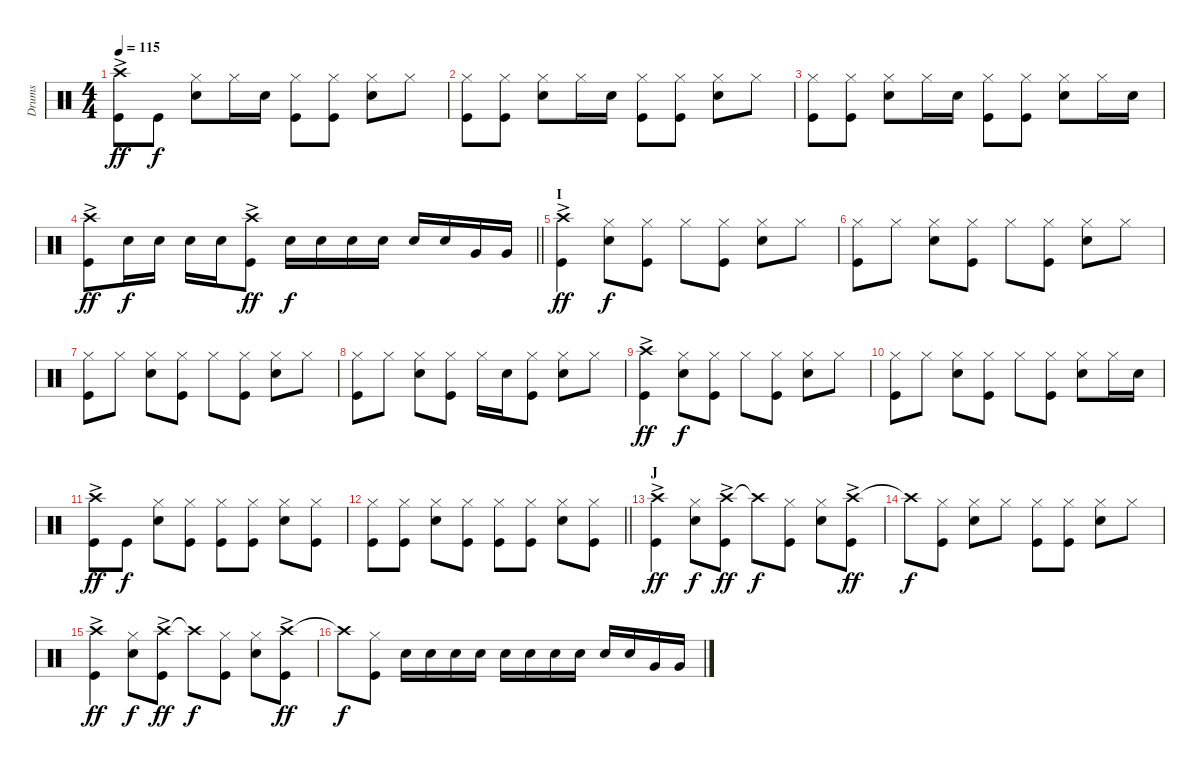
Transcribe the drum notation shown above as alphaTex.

\track ("Drums" "Drums") {instrument percussion}
\staff {score}
\articulation defaults
\ts (4 4)
\tempo 115
\clef neutral
\ks c
("Crash high (hit)"{ac} "Kick (hit)").8{dy ff} "Kick (hit)".8{dy f} ("Hi-Hat (closed)" "Snare (hit) 2").8 "Hi-Hat (closed)".16 "Snare (hit) 2".16 ("Hi-Hat (closed)" "Kick (hit)").8 ("Hi-Hat (closed)" "Kick (hit)").8 ("Hi-Hat (closed)" "Snare (hit) 2").8 "Hi-Hat (closed)".8 |
("Hi-Hat (closed)" "Kick (hit)").8 ("Hi-Hat (closed)" "Kick (hit)").8 ("Hi-Hat (closed)" "Snare (hit) 2").8 "Hi-Hat (closed)".16 "Snare (hit) 2".16 ("Hi-Hat (closed)" "Kick (hit)").8 ("Hi-Hat (closed)" "Kick (hit)").8 ("Hi-Hat (closed)" "Snare (hit) 2").8 "Hi-Hat (closed)".8 |
("Hi-Hat (closed)" "Kick (hit)").8 ("Hi-Hat (closed)" "Kick (hit)").8 ("Hi-Hat (closed)" "Snare (hit) 2").8 "Hi-Hat (closed)".16 "Snare (hit) 2".16 ("Hi-Hat (closed)" "Kick (hit)").8 ("Hi-Hat (closed)" "Kick (hit)").8 ("Hi-Hat (closed)" "Snare (hit) 2").8 "Hi-Hat (closed)".16 "Snare (hit) 2".16 |
\barLineRight lightlight
("Crash high (hit)"{ac} "Kick (hit)").8{dy ff} "Snare (hit) 2".16{dy f} "Snare (hit) 2".16 "Snare (hit) 2".16 "Snare (hit) 2".16 ("Crash high (hit)"{ac} "Kick (hit)").8{dy ff} "Snare (hit) 2".16{dy f} "Snare (hit) 2".16 "Snare (hit) 2".16 "Snare (hit) 2".16 "Snare (hit) 2".16 "Snare (hit) 2".16 "Very Low Tom (hit)".16 "Very Low Tom (hit)".16 |
\section ("" "I")
("Crash high (hit)"{ac} "Kick (hit)").4{dy ff} ("Hi-Hat (closed)" "Snare (hit) 2").8{dy f} ("Hi-Hat (closed)" "Kick (hit)").8 "Hi-Hat (closed)".8 ("Hi-Hat (closed)" "Kick (hit)").8 ("Hi-Hat (closed)" "Snare (hit) 2").8 "Hi-Hat (closed)".8 |
("Hi-Hat (closed)" "Kick (hit)").8 "Hi-Hat (closed)".8 ("Hi-Hat (closed)" "Snare (hit) 2").8 ("Hi-Hat (closed)" "Kick (hit)").8 "Hi-Hat (closed)".8 ("Hi-Hat (closed)" "Kick (hit)").8 ("Hi-Hat (closed)" "Snare (hit) 2").8 "Hi-Hat (closed)".8 |
("Hi-Hat (closed)" "Kick (hit)").8 "Hi-Hat (closed)".8 ("Hi-Hat (closed)" "Snare (hit) 2").8 ("Hi-Hat (closed)" "Kick (hit)").8 "Hi-Hat (closed)".8 ("Hi-Hat (closed)" "Kick (hit)").8 ("Hi-Hat (closed)" "Snare (hit) 2").8 "Hi-Hat (closed)".8 |
("Hi-Hat (closed)" "Kick (hit)").8 "Hi-Hat (closed)".8 ("Hi-Hat (closed)" "Snare (hit) 2").8 ("Hi-Hat (closed)" "Kick (hit)").8 "Hi-Hat (closed)".16 "Snare (hit) 2".16 ("Hi-Hat (closed)" "Kick (hit)").8 ("Hi-Hat (closed)" "Snare (hit) 2").8 "Hi-Hat (closed)".8 |
("Crash high (hit)"{ac} "Kick (hit)").4{dy ff} ("Hi-Hat (closed)" "Snare (hit) 2").8{dy f} ("Hi-Hat (closed)" "Kick (hit)").8 "Hi-Hat (closed)".8 ("Hi-Hat (closed)" "Kick (hit)").8 ("Hi-Hat (closed)" "Snare (hit) 2").8 "Hi-Hat (closed)".8 |
("Hi-Hat (closed)" "Kick (hit)").8 "Hi-Hat (closed)".8 ("Hi-Hat (closed)" "Snare (hit) 2").8 ("Hi-Hat (closed)" "Kick (hit)").8 "Hi-Hat (closed)".8 ("Hi-Hat (closed)" "Kick (hit)").8 ("Hi-Hat (closed)" "Snare (hit) 2").8 "Hi-Hat (closed)".16 "Snare (hit) 2".16 |
("Crash high (hit)"{ac} "Kick (hit)").8{dy ff} "Kick (hit)".8{dy f} ("Hi-Hat (closed)" "Snare (hit) 2").8 ("Hi-Hat (closed)" "Kick (hit)").8 ("Hi-Hat (closed)" "Kick (hit)").8 ("Hi-Hat (closed)" "Kick (hit)").8 ("Hi-Hat (closed)" "Snare (hit) 2").8 ("Hi-Hat (closed)" "Kick (hit)").8 |
\barLineRight lightlight
("Hi-Hat (closed)" "Kick (hit)").8 ("Hi-Hat (closed)" "Kick (hit)").8 ("Hi-Hat (closed)" "Snare (hit) 2").8 ("Hi-Hat (closed)" "Kick (hit)").8 ("Hi-Hat (closed)" "Kick (hit)").8 ("Hi-Hat (closed)" "Kick (hit)").8 ("Hi-Hat (closed)" "Snare (hit) 2").8 ("Hi-Hat (closed)" "Kick (hit)").8 |
\section ("" "J")
("Crash high (hit)"{ac} "Kick (hit)").4{dy ff} ("Hi-Hat (closed)" "Snare (hit) 2").8{dy f} ("Crash high (hit)"{ac} "Kick (hit)").8{dy ff} "Crash high (hit)"{t}.8{dy f} ("Hi-Hat (closed)" "Kick (hit)").8 ("Hi-Hat (closed)" "Snare (hit) 2").8 ("Crash high (hit)"{ac} "Kick (hit)").8{dy ff} |
"Crash high (hit)"{t}.8{dy f} ("Hi-Hat (closed)" "Kick (hit)").8 ("Hi-Hat (closed)" "Snare (hit) 2").8 "Hi-Hat (closed)".8 ("Hi-Hat (closed)" "Kick (hit)").8 ("Hi-Hat (closed)" "Kick (hit)").8 ("Hi-Hat (closed)" "Snare (hit) 2").8 "Hi-Hat (closed)".8 |
("Crash high (hit)"{ac} "Kick (hit)").4{dy ff} ("Hi-Hat (closed)" "Snare (hit) 2").8{dy f} ("Crash high (hit)"{ac} "Kick (hit)").8{dy ff} "Crash high (hit)"{t}.8{dy f} ("Hi-Hat (closed)" "Kick (hit)").8 ("Hi-Hat (closed)" "Snare (hit) 2").8 ("Crash high (hit)"{ac} "Kick (hit)").8{dy ff} |
"Crash high (hit)"{t}.8{dy f} ("Hi-Hat (closed)" "Kick (hit)").8 "Snare (hit) 2".16 "Snare (hit) 2".16 "Snare (hit) 2".16 "Snare (hit) 2".16 "Snare (hit) 2".16 "Snare (hit) 2".16 "Snare (hit) 2".16 "Snare (hit) 2".16 "Snare (hit) 2".16 "Snare (hit) 2".16 "Very Low Tom (hit)".16 "Very Low Tom (hit)".16
